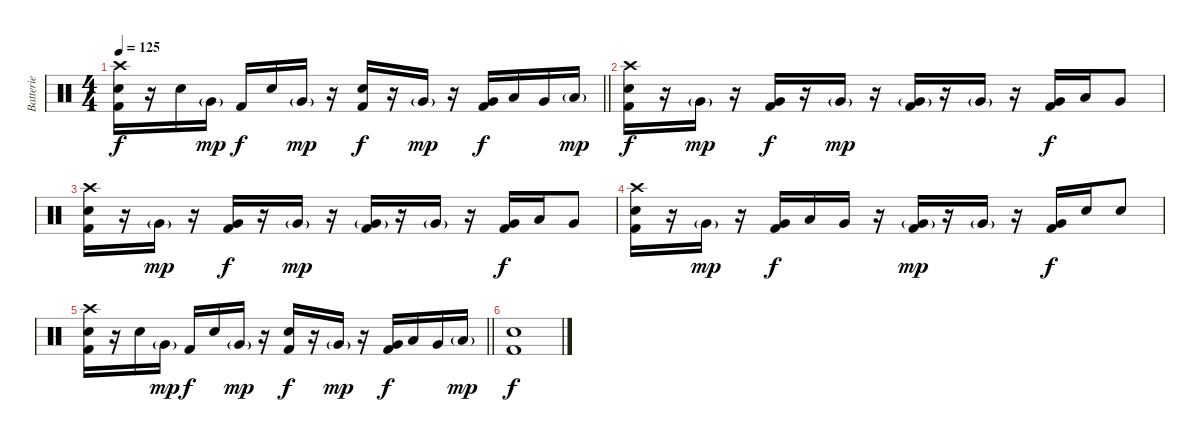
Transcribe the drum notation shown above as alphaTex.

\track ("Batterie" "Batterie") {instrument percussion}
\staff {score}
\articulation defaults
\ts (4 4)
\tempo 125
\clef neutral
\barLineRight lightlight
\ks c
("Crash high (hit)" "Electric Snare (hit)" "Kick (hit) 2").16{dy f} r.16 "Electric Snare (hit)".16 "Very Low Tom (hit)"{g}.16{dy mp} "Kick (hit) 2".16{dy f} "Electric Snare (hit)".16 "Very Low Tom (hit)"{g}.16{dy mp} r.16 ("Electric Snare (hit)" "Kick (hit) 2").16{dy f} r.16 "Very Low Tom (hit)"{g}.16{dy mp} r.16 ("Very Low Tom (hit)" "Kick (hit) 2").16{dy f} "Low Tom (hit)".16 "Very Low Tom (hit)".16 "Low Tom (hit)"{g}.16{dy mp} |
("Crash high (hit)" "Electric Snare (hit)" "Kick (hit) 2").16{dy f} r.16 "Very Low Tom (hit)"{g}.16{dy mp} r.16 ("Very Low Tom (hit)" "Kick (hit) 2").16{dy f} r.16 "Very Low Tom (hit)"{g}.16{dy mp} r.16 ("Very Low Tom (hit)"{g} "Kick (hit) 2").16 r.16 "Very Low Tom (hit)"{g}.16 r.16 ("Very Low Tom (hit)" "Kick (hit) 2").16{dy f} "Low Tom (hit)".16 "Very Low Tom (hit)".8 |
("Crash high (hit)" "Electric Snare (hit)" "Kick (hit) 2").16 r.16 "Very Low Tom (hit)"{g}.16{dy mp} r.16 ("Very Low Tom (hit)" "Kick (hit) 2").16{dy f} r.16 "Very Low Tom (hit)"{g}.16{dy mp} r.16 ("Very Low Tom (hit)"{g} "Kick (hit) 2").16 r.16 "Very Low Tom (hit)"{g}.16 r.16 ("Very Low Tom (hit)" "Kick (hit) 2").16{dy f} "Low Tom (hit)".16 "Very Low Tom (hit)".8 |
("Crash high (hit)" "Electric Snare (hit)" "Kick (hit) 2").16 r.16 "Very Low Tom (hit)"{g}.16{dy mp} r.16 ("Very Low Tom (hit)" "Kick (hit) 2").16{dy f} "Low Tom (hit)".16 "Very Low Tom (hit)".16 r.16 ("Very Low Tom (hit)"{g} "Kick (hit) 2").16{dy mp} r.16 "Very Low Tom (hit)"{g}.16 r.16 ("Very Low Tom (hit)" "Kick (hit) 2").16{dy f} "Electric Snare (hit)".16 "Electric Snare (hit)".8 |
\barLineRight lightlight
("Crash high (hit)" "Electric Snare (hit)" "Kick (hit) 2").16 r.16 "Electric Snare (hit)".16 "Very Low Tom (hit)"{g}.16{dy mp} "Kick (hit) 2".16{dy f} "Electric Snare (hit)".16 "Very Low Tom (hit)"{g}.16{dy mp} r.16 ("Electric Snare (hit)" "Kick (hit) 2").16{dy f} r.16 "Very Low Tom (hit)"{g}.16{dy mp} r.16 ("Very Low Tom (hit)" "Kick (hit) 2").16{dy f} "Low Tom (hit)".16 "Very Low Tom (hit)".16 "Low Tom (hit)"{g}.16{dy mp} |
("Electric Snare (hit)" "Kick (hit) 2").1{dy f}
